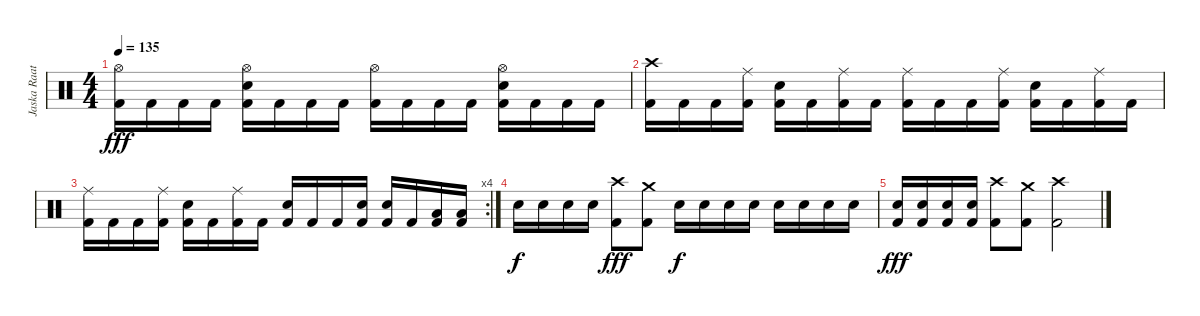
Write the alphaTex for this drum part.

\track ("Jaska Raatikainen" "Jaska Raat") {instrument percussion}
\staff {score}
\articulation defaults
\ts (4 4)
\tempo 135
\clef neutral
\ks c
("Hi-Hat (open)" "Kick (hit) 2").16{dy fff} "Kick (hit) 2".16 "Kick (hit) 2".16 "Kick (hit) 2".16 ("Hi-Hat (open)" "Electric Snare (hit)" "Kick (hit) 2").16 "Kick (hit) 2".16 "Kick (hit) 2".16 "Kick (hit) 2".16 ("Hi-Hat (open)" "Kick (hit) 2").16 "Kick (hit) 2".16 "Kick (hit) 2".16 "Kick (hit) 2".16 ("Hi-Hat (open)" "Electric Snare (hit)" "Kick (hit) 2").16 "Kick (hit) 2".16 "Kick (hit) 2".16 "Kick (hit) 2".16 |
("Crash high (hit)" "Kick (hit) 2").16 "Kick (hit) 2".16 "Kick (hit) 2".16 ("Ride (middle)" "Kick (hit) 2").16 ("Electric Snare (hit)" "Kick (hit) 2").16 "Kick (hit) 2".16 ("Ride (middle)" "Kick (hit) 2").16 "Kick (hit) 2".16 ("Ride (middle)" "Kick (hit) 2").16 "Kick (hit) 2".16 "Kick (hit) 2".16 ("Ride (middle)" "Kick (hit) 2").16 ("Electric Snare (hit)" "Kick (hit) 2").16 "Kick (hit) 2".16 ("Ride (middle)" "Kick (hit) 2").16 "Kick (hit) 2".16 |
\rc 4
("Ride (middle)" "Kick (hit) 2").16 "Kick (hit) 2".16 "Kick (hit) 2".16 ("Ride (middle)" "Kick (hit) 2").16 ("Electric Snare (hit)" "Kick (hit) 2").16 "Kick (hit) 2".16 ("Ride (middle)" "Kick (hit) 2").16 "Kick (hit) 2".16 ("Electric Snare (hit)" "Kick (hit) 2").16 "Kick (hit) 2".16 "Kick (hit) 2".16 ("Electric Snare (hit)" "Kick (hit) 2").16 ("Electric Snare (hit)" "Kick (hit) 2").16 "Kick (hit) 2".16 ("Low Tom (hit)" "Kick (hit) 2").16 ("Low Tom (hit)" "Kick (hit) 2").16 |
"Electric Snare (hit)".16{dy f} "Electric Snare (hit)".16 "Electric Snare (hit)".16 "Electric Snare (hit)".16 ("Crash high (hit)" "Kick (hit) 2").8{dy fff} ("Crash medium (hit)" "Kick (hit) 2").8 "Electric Snare (hit)".16{dy f} "Electric Snare (hit)".16 "Electric Snare (hit)".16 "Electric Snare (hit)".16 "Electric Snare (hit)".16 "Electric Snare (hit)".16 "Electric Snare (hit)".16 "Electric Snare (hit)".16 |
("Electric Snare (hit)" "Kick (hit) 2").16{dy fff} ("Electric Snare (hit)" "Kick (hit) 2").16 ("Electric Snare (hit)" "Kick (hit) 2").16 ("Electric Snare (hit)" "Kick (hit) 2").16 ("Crash high (hit)" "Kick (hit) 2").8 ("Crash medium (hit)" "Kick (hit) 2").8 ("Crash high (hit)" "Kick (hit) 2").2
